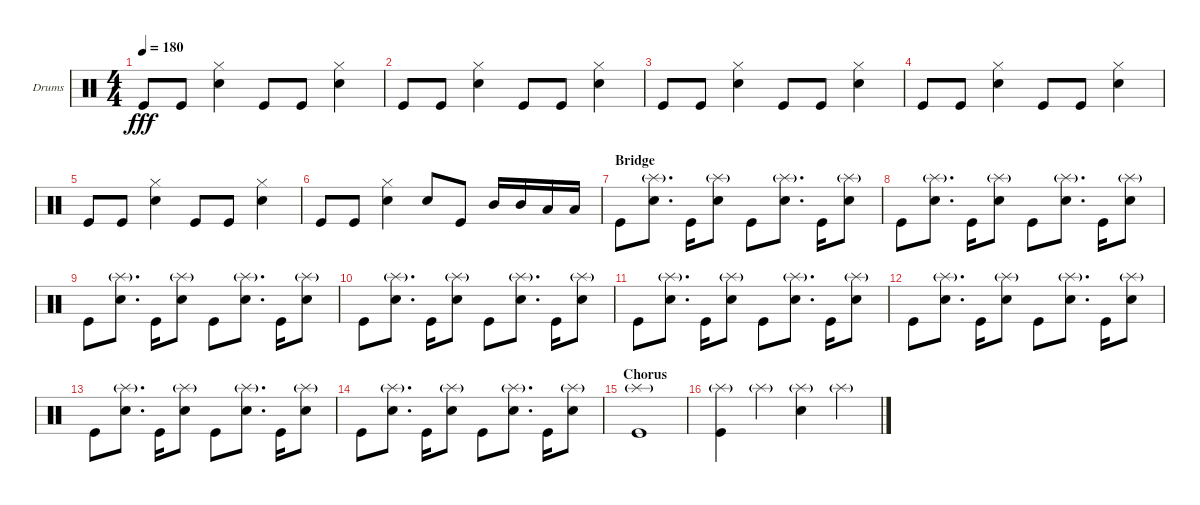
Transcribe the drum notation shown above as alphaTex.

\bracketExtendMode groupsimilarinstruments
\firstSystemTrackNameOrientation horizontal
\otherSystemsTrackNameOrientation horizontal
\track ("Drumkit" "Drums") {instrument percussion}
\staff {score}
\articulation defaults
\ts (4 4)
\tempo 180
\clef neutral
\scale
0.333333
\ks c "Kick (hit)".8{dy fff} "Kick (hit)".8
("Snare (hit) 2" "Hi-Hat (closed)").4 "Kick (hit)".8 "Kick (hit)".8 ("Snare (hit) 2" "Hi-Hat (closed)").4 |
\scale
0.333333 "Kick (hit)".8 "Kick (hit)".8 ("Snare (hit) 2" "Hi-Hat (closed)").4 "Kick (hit)".8 "Kick (hit)".8 ("Snare (hit) 2" "Hi-Hat (closed)").4 |
\scale
0.333333 "Kick (hit)".8 "Kick (hit)".8 ("Snare (hit) 2" "Hi-Hat (closed)").4 "Kick (hit)".8 "Kick (hit)".8 ("Snare (hit) 2" "Hi-Hat (closed)").4 |
\scale
0.333333 "Kick (hit)".8 "Kick (hit)".8 ("Snare (hit) 2" "Hi-Hat (closed)").4 "Kick (hit)".8 "Kick (hit)".8 ("Snare (hit) 2" "Hi-Hat (closed)").4 |
\scale
0.333333 "Kick (hit)".8 "Kick (hit)".8 ("Snare (hit) 2" "Hi-Hat (closed)").4 "Kick (hit)".8 "Kick (hit)".8 ("Snare (hit) 2" "Hi-Hat (closed)").4 |
\scale
0.333333 "Kick (hit)".8 "Kick (hit)".8 ("Snare (hit) 2" "Hi-Hat (closed)").4 "Snare (hit) 2".8 "Kick (hit)".8 "Mid Tom (hit)".16 "Mid Tom (hit)".16 "Low Tom (hit)".16 "Low Tom (hit)".16 |
\section ("" "Bridge")
\scale
0.333333 "Kick (hit)".8 ("Snare (hit) 2" "Splash (hit)"{g}).8{d} "Kick (hit)".16 ("Snare (hit) 2" "Splash (hit)"{g}).8 "Kick (hit)".8 ("Snare (hit) 2" "Splash (hit)"{g}).8{d} "Kick (hit)".16 ("Snare (hit) 2" "Splash (hit)"{g}).8 |
\scale
0.333333 "Kick (hit)".8 ("Snare (hit) 2" "Splash (hit)"{g}).8{d} "Kick (hit)".16 ("Snare (hit) 2" "Splash (hit)"{g}).8 "Kick (hit)".8 ("Snare (hit) 2" "Splash (hit)"{g}).8{d} "Kick (hit)".16 ("Snare (hit) 2" "Splash (hit)"{g}).8 |
\scale
0.333333 "Kick (hit)".8 ("Snare (hit) 2" "Splash (hit)"{g}).8{d} "Kick (hit)".16 ("Snare (hit) 2" "Splash (hit)"{g}).8 "Kick (hit)".8 ("Snare (hit) 2" "Splash (hit)"{g}).8{d} "Kick (hit)".16 ("Snare (hit) 2" "Splash (hit)"{g}).8 |
\scale
0.333333 "Kick (hit)".8 ("Snare (hit) 2" "Splash (hit)"{g}).8{d} "Kick (hit)".16 ("Snare (hit) 2" "Splash (hit)"{g}).8 "Kick (hit)".8 ("Snare (hit) 2" "Splash (hit)"{g}).8{d} "Kick (hit)".16 ("Snare (hit) 2" "Splash (hit)"{g}).8 |
\scale
0.333333 "Kick (hit)".8 ("Snare (hit) 2" "Splash (hit)"{g}).8{d} "Kick (hit)".16 ("Snare (hit) 2" "Splash (hit)"{g}).8 "Kick (hit)".8 ("Snare (hit) 2" "Splash (hit)"{g}).8{d} "Kick (hit)".16 ("Snare (hit) 2" "Splash (hit)"{g}).8 |
\scale
0.333333 "Kick (hit)".8 ("Snare (hit) 2" "Splash (hit)"{g}).8{d} "Kick (hit)".16 ("Snare (hit) 2" "Splash (hit)"{g}).8 "Kick (hit)".8 ("Snare (hit) 2" "Splash (hit)"{g}).8{d} "Kick (hit)".16 ("Snare (hit) 2" "Splash (hit)"{g}).8 |
\scale
0.333333 "Kick (hit)".8 ("Snare (hit) 2" "Splash (hit)"{g}).8{d} "Kick (hit)".16 ("Snare (hit) 2" "Splash (hit)"{g}).8 "Kick (hit)".8 ("Snare (hit) 2" "Splash (hit)"{g}).8{d} "Kick (hit)".16 ("Snare (hit) 2" "Splash (hit)"{g}).8 |
\scale
0.333333 "Kick (hit)".8 ("Snare (hit) 2" "Splash (hit)"{g}).8{d} "Kick (hit)".16 ("Snare (hit) 2" "Splash (hit)"{g}).8 "Kick (hit)".8 ("Snare (hit) 2" "Splash (hit)"{g}).8{d} "Kick (hit)".16 ("Snare (hit) 2" "Splash (hit)"{g}).8 |
\section ("" "Chorus")
\scale
0.333333 ("Kick (hit)" "Splash (hit)"{g}).1 |
\scale
0.333333 ("Kick (hit)" "Splash (hit)"{g}).4 "Splash (hit)"{g}.4 ("Snare (hit) 2" "Splash (hit)"{g}).4 "Splash (hit)"{g}.4
